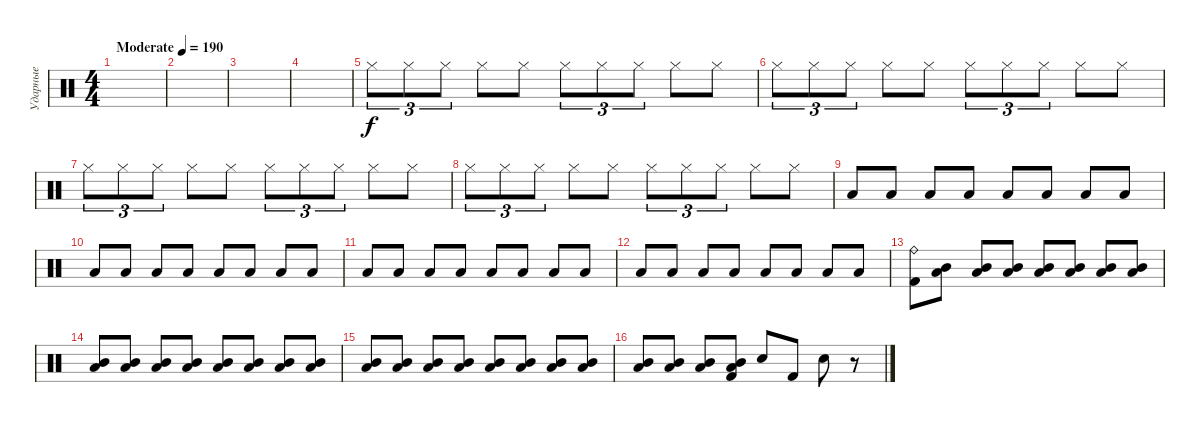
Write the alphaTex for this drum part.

\track ("Ударные" "Ударные") {instrument percussion}
\staff {score}
\articulation defaults
\ts (4 4)
\tempo (190 "Moderate")
\clef neutral
\ks c
|
|
|
|
"Hi-Hat (closed)".8{tu (3 2)} "Hi-Hat (closed)".8{tu (3 2)} "Hi-Hat (closed)".8{tu (3 2)} "Hi-Hat (closed)".8 "Hi-Hat (closed)".8 "Hi-Hat (closed)".8{tu (3 2)} "Hi-Hat (closed)".8{tu (3 2)} "Hi-Hat (closed)".8{tu (3 2)} "Hi-Hat (closed)".8 "Hi-Hat (closed)".8 |
"Hi-Hat (closed)".8{tu (3 2)} "Hi-Hat (closed)".8{tu (3 2)} "Hi-Hat (closed)".8{tu (3 2)} "Hi-Hat (closed)".8 "Hi-Hat (closed)".8 "Hi-Hat (closed)".8{tu (3 2)} "Hi-Hat (closed)".8{tu (3 2)} "Hi-Hat (closed)".8{tu (3 2)} "Hi-Hat (closed)".8 "Hi-Hat (closed)".8 |
"Hi-Hat (closed)".8{tu (3 2)} "Hi-Hat (closed)".8{tu (3 2)} "Hi-Hat (closed)".8{tu (3 2)} "Hi-Hat (closed)".8 "Hi-Hat (closed)".8 "Hi-Hat (closed)".8{tu (3 2)} "Hi-Hat (closed)".8{tu (3 2)} "Hi-Hat (closed)".8{tu (3 2)} "Hi-Hat (closed)".8 "Hi-Hat (closed)".8 |
"Hi-Hat (closed)".8{tu (3 2)} "Hi-Hat (closed)".8{tu (3 2)} "Hi-Hat (closed)".8{tu (3 2)} "Hi-Hat (closed)".8 "Hi-Hat (closed)".8 "Hi-Hat (closed)".8{tu (3 2)} "Hi-Hat (closed)".8{tu (3 2)} "Hi-Hat (closed)".8{tu (3 2)} "Hi-Hat (closed)".8 "Hi-Hat (closed)".8 |
"Low Tom (hit)".8 "Low Tom (hit)".8 "Low Tom (hit)".8 "Low Tom (hit)".8 "Low Tom (hit)".8 "Low Tom (hit)".8 "Low Tom (hit)".8 "Low Tom (hit)".8 |
"Low Tom (hit)".8 "Low Tom (hit)".8 "Low Tom (hit)".8 "Low Tom (hit)".8 "Low Tom (hit)".8 "Low Tom (hit)".8 "Low Tom (hit)".8 "Low Tom (hit)".8 |
"Low Tom (hit)".8 "Low Tom (hit)".8 "Low Tom (hit)".8 "Low Tom (hit)".8 "Low Tom (hit)".8 "Low Tom (hit)".8 "Low Tom (hit)".8 "Low Tom (hit)".8 |
"Low Tom (hit)".8 "Low Tom (hit)".8 "Low Tom (hit)".8 "Low Tom (hit)".8 "Low Tom (hit)".8 "Low Tom (hit)".8 "Low Tom (hit)".8 "Low Tom (hit)".8 |
("Ride (bell)" "Kick (hit) 2").8 ("Mid Tom (hit)" "Low Tom (hit)").8 ("Mid Tom (hit)" "Low Tom (hit)").8 ("Mid Tom (hit)" "Low Tom (hit)").8 ("Mid Tom (hit)" "Low Tom (hit)").8 ("Mid Tom (hit)" "Low Tom (hit)").8 ("Mid Tom (hit)" "Low Tom (hit)").8 ("Mid Tom (hit)" "Low Tom (hit)").8 |
("Mid Tom (hit)" "Low Tom (hit)").8 ("Mid Tom (hit)" "Low Tom (hit)").8 ("Mid Tom (hit)" "Low Tom (hit)").8 ("Mid Tom (hit)" "Low Tom (hit)").8 ("Mid Tom (hit)" "Low Tom (hit)").8 ("Mid Tom (hit)" "Low Tom (hit)").8 ("Mid Tom (hit)" "Low Tom (hit)").8 ("Mid Tom (hit)" "Low Tom (hit)").8 |
("Mid Tom (hit)" "Low Tom (hit)").8 ("Mid Tom (hit)" "Low Tom (hit)").8 ("Mid Tom (hit)" "Low Tom (hit)").8 ("Mid Tom (hit)" "Low Tom (hit)").8 ("Mid Tom (hit)" "Low Tom (hit)").8 ("Mid Tom (hit)" "Low Tom (hit)").8 ("Mid Tom (hit)" "Low Tom (hit)").8 ("Mid Tom (hit)" "Low Tom (hit)").8 |
("Mid Tom (hit)" "Low Tom (hit)").8 ("Mid Tom (hit)" "Low Tom (hit)").8 ("Mid Tom (hit)" "Low Tom (hit)").8 ("Kick (hit) 2" "Mid Tom (hit)" "Low Tom (hit)").8 "Electric Snare (hit)".8 "Kick (hit) 2".8 "Electric Snare (hit)".8 r.8
